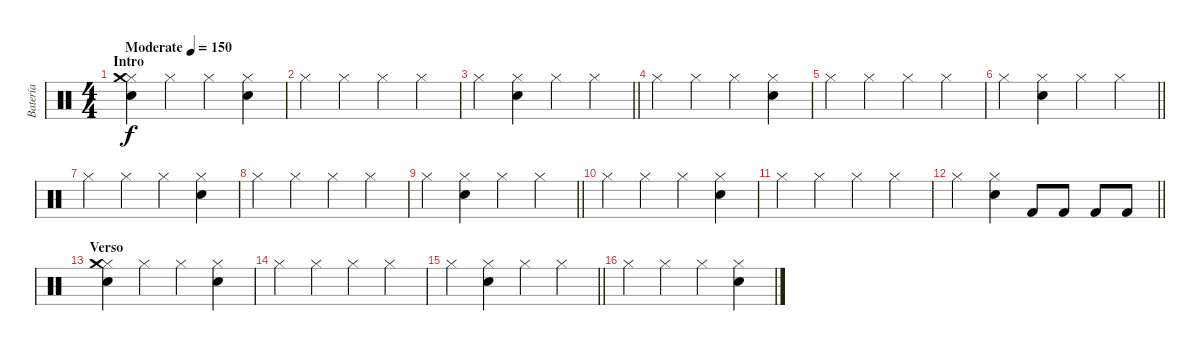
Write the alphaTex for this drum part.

\track ("Batería" "Batería") {instrument percussion}
\staff {score}
\articulation defaults
\ts (4 4)
\section ("" "Intro")
\tempo (150 "Moderate")
\clef neutral
\ks c
("Hi-Hat (closed)" "Electric Snare (hit)" "Crash medium (hit)").4{dy f} "Hi-Hat (closed)".4 "Hi-Hat (closed)".4 ("Hi-Hat (closed)" "Electric Snare (hit)").4 |
"Hi-Hat (closed)".4 "Hi-Hat (closed)".4 "Hi-Hat (closed)".4 "Hi-Hat (closed)".4 |
\barLineRight lightlight "Hi-Hat (closed)".4
("Hi-Hat (closed)" "Electric Snare (hit)").4 "Hi-Hat (closed)".4 "Hi-Hat (closed)".4 |
"Hi-Hat (closed)".4 "Hi-Hat (closed)".4 "Hi-Hat (closed)".4 ("Hi-Hat (closed)" "Electric Snare (hit)").4 |
"Hi-Hat (closed)".4 "Hi-Hat (closed)".4 "Hi-Hat (closed)".4 "Hi-Hat (closed)".4 |
\barLineRight lightlight "Hi-Hat (closed)".4
("Hi-Hat (closed)" "Electric Snare (hit)").4 "Hi-Hat (closed)".4 "Hi-Hat (closed)".4 |
"Hi-Hat (closed)".4 "Hi-Hat (closed)".4 "Hi-Hat (closed)".4 ("Hi-Hat (closed)" "Electric Snare (hit)").4 |
"Hi-Hat (closed)".4 "Hi-Hat (closed)".4 "Hi-Hat (closed)".4 "Hi-Hat (closed)".4 |
\barLineRight lightlight "Hi-Hat (closed)".4
("Hi-Hat (closed)" "Electric Snare (hit)").4 "Hi-Hat (closed)".4 "Hi-Hat (closed)".4 |
"Hi-Hat (closed)".4 "Hi-Hat (closed)".4 "Hi-Hat (closed)".4 ("Hi-Hat (closed)" "Electric Snare (hit)").4 |
"Hi-Hat (closed)".4 "Hi-Hat (closed)".4 "Hi-Hat (closed)".4 "Hi-Hat (closed)".4 |
\barLineRight lightlight "Hi-Hat (closed)".4
("Hi-Hat (closed)" "Electric Snare (hit)").4 "Kick (hit) 2".8 "Kick (hit) 2".8 "Kick (hit) 2".8 "Kick (hit) 2".8 |
\section ("" "Verso")
("Hi-Hat (closed)" "Electric Snare (hit)" "Crash medium (hit)").4 "Hi-Hat (closed)".4 "Hi-Hat (closed)".4 ("Hi-Hat (closed)" "Electric Snare (hit)").4 |
"Hi-Hat (closed)".4 "Hi-Hat (closed)".4 "Hi-Hat (closed)".4 "Hi-Hat (closed)".4 |
\barLineRight lightlight "Hi-Hat (closed)".4
("Hi-Hat (closed)" "Electric Snare (hit)").4 "Hi-Hat (closed)".4 "Hi-Hat (closed)".4 |
"Hi-Hat (closed)".4 "Hi-Hat (closed)".4 "Hi-Hat (closed)".4 ("Hi-Hat (closed)" "Electric Snare (hit)").4
